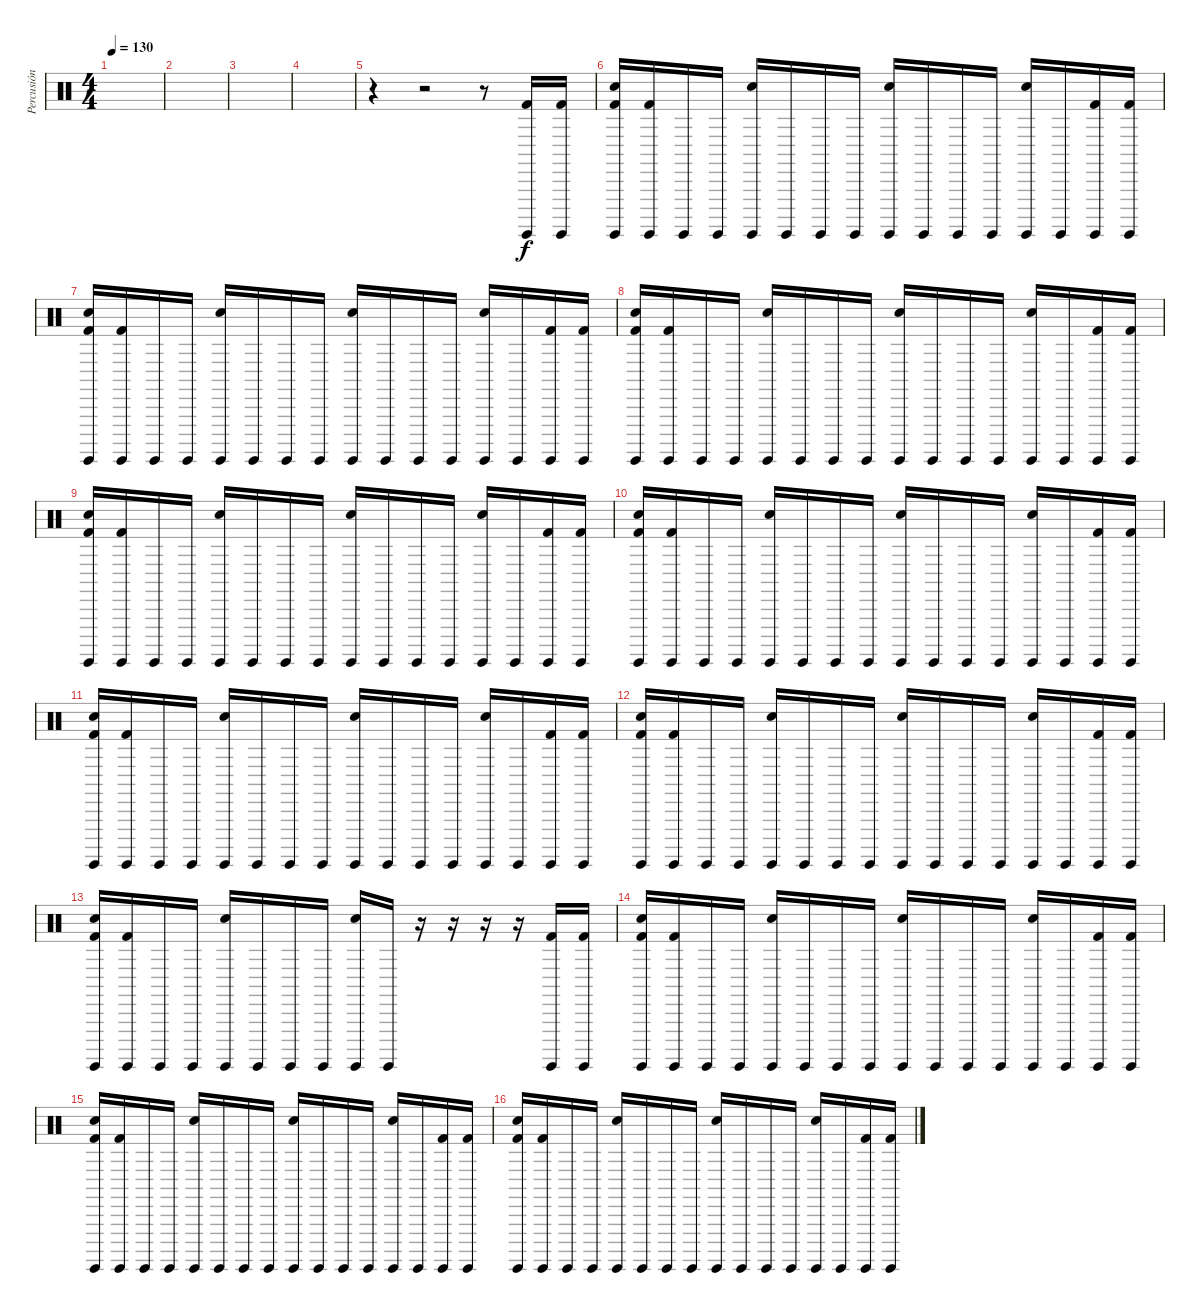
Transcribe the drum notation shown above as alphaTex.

\track ("Percusión" "Percusión") {instrument percussion}
\staff {score}
\articulation defaults
\ts (4 4)
\tempo 130
\clef neutral
\ks c
|
|
|
|
r.4 r.2 r.8 ("Kick (hit) 2" "Surdo (hit)").16 ("Kick (hit) 2" "Surdo (hit)").16 |
("Kick (hit) 2" "Electric Snare (hit)" "Surdo (hit)").16 ("Kick (hit) 2" "Surdo (hit)").16 "Surdo (hit)".16 "Surdo (hit)".16 ("Electric Snare (hit)" "Surdo (hit)").16 "Surdo (hit)".16 "Surdo (hit)".16 "Surdo (hit)".16 ("Electric Snare (hit)" "Surdo (hit)").16 "Surdo (hit)".16 "Surdo (hit)".16 "Surdo (hit)".16 ("Electric Snare (hit)" "Surdo (hit)").16 "Surdo (hit)".16 ("Kick (hit) 2" "Surdo (hit)").16 ("Kick (hit) 2" "Surdo (hit)").16 |
("Kick (hit) 2" "Electric Snare (hit)" "Surdo (hit)").16 ("Kick (hit) 2" "Surdo (hit)").16 "Surdo (hit)".16 "Surdo (hit)".16 ("Electric Snare (hit)" "Surdo (hit)").16 "Surdo (hit)".16 "Surdo (hit)".16 "Surdo (hit)".16 ("Electric Snare (hit)" "Surdo (hit)").16 "Surdo (hit)".16 "Surdo (hit)".16 "Surdo (hit)".16 ("Electric Snare (hit)" "Surdo (hit)").16 "Surdo (hit)".16 ("Kick (hit) 2" "Surdo (hit)").16 ("Kick (hit) 2" "Surdo (hit)").16 |
("Kick (hit) 2" "Electric Snare (hit)" "Surdo (hit)").16 ("Kick (hit) 2" "Surdo (hit)").16 "Surdo (hit)".16 "Surdo (hit)".16 ("Electric Snare (hit)" "Surdo (hit)").16 "Surdo (hit)".16 "Surdo (hit)".16 "Surdo (hit)".16 ("Electric Snare (hit)" "Surdo (hit)").16 "Surdo (hit)".16 "Surdo (hit)".16 "Surdo (hit)".16 ("Electric Snare (hit)" "Surdo (hit)").16 "Surdo (hit)".16 ("Kick (hit) 2" "Surdo (hit)").16 ("Kick (hit) 2" "Surdo (hit)").16 |
("Kick (hit) 2" "Electric Snare (hit)" "Surdo (hit)").16 ("Kick (hit) 2" "Surdo (hit)").16 "Surdo (hit)".16 "Surdo (hit)".16 ("Electric Snare (hit)" "Surdo (hit)").16 "Surdo (hit)".16 "Surdo (hit)".16 "Surdo (hit)".16 ("Electric Snare (hit)" "Surdo (hit)").16 "Surdo (hit)".16 "Surdo (hit)".16 "Surdo (hit)".16 ("Electric Snare (hit)" "Surdo (hit)").16 "Surdo (hit)".16 ("Kick (hit) 2" "Surdo (hit)").16 ("Kick (hit) 2" "Surdo (hit)").16 |
("Kick (hit) 2" "Electric Snare (hit)" "Surdo (hit)").16 ("Kick (hit) 2" "Surdo (hit)").16 "Surdo (hit)".16 "Surdo (hit)".16 ("Electric Snare (hit)" "Surdo (hit)").16 "Surdo (hit)".16 "Surdo (hit)".16 "Surdo (hit)".16 ("Electric Snare (hit)" "Surdo (hit)").16 "Surdo (hit)".16 "Surdo (hit)".16 "Surdo (hit)".16 ("Electric Snare (hit)" "Surdo (hit)").16 "Surdo (hit)".16 ("Kick (hit) 2" "Surdo (hit)").16 ("Kick (hit) 2" "Surdo (hit)").16 |
("Kick (hit) 2" "Electric Snare (hit)" "Surdo (hit)").16 ("Kick (hit) 2" "Surdo (hit)").16 "Surdo (hit)".16 "Surdo (hit)".16 ("Electric Snare (hit)" "Surdo (hit)").16 "Surdo (hit)".16 "Surdo (hit)".16 "Surdo (hit)".16 ("Electric Snare (hit)" "Surdo (hit)").16 "Surdo (hit)".16 "Surdo (hit)".16 "Surdo (hit)".16 ("Electric Snare (hit)" "Surdo (hit)").16 "Surdo (hit)".16 ("Kick (hit) 2" "Surdo (hit)").16 ("Kick (hit) 2" "Surdo (hit)").16 |
("Kick (hit) 2" "Electric Snare (hit)" "Surdo (hit)").16 ("Kick (hit) 2" "Surdo (hit)").16 "Surdo (hit)".16 "Surdo (hit)".16 ("Electric Snare (hit)" "Surdo (hit)").16 "Surdo (hit)".16 "Surdo (hit)".16 "Surdo (hit)".16 ("Electric Snare (hit)" "Surdo (hit)").16 "Surdo (hit)".16 "Surdo (hit)".16 "Surdo (hit)".16 ("Electric Snare (hit)" "Surdo (hit)").16 "Surdo (hit)".16 ("Kick (hit) 2" "Surdo (hit)").16 ("Kick (hit) 2" "Surdo (hit)").16 |
("Kick (hit) 2" "Electric Snare (hit)" "Surdo (hit)").16 ("Kick (hit) 2" "Surdo (hit)").16 "Surdo (hit)".16 "Surdo (hit)".16 ("Electric Snare (hit)" "Surdo (hit)").16 "Surdo (hit)".16 "Surdo (hit)".16 "Surdo (hit)".16 ("Electric Snare (hit)" "Surdo (hit)").16 "Surdo (hit)".16 r.16 r.16 r.16 r.16 ("Kick (hit) 2" "Surdo (hit)").16 ("Kick (hit) 2" "Surdo (hit)").16 |
("Kick (hit) 2" "Electric Snare (hit)" "Surdo (hit)").16 ("Kick (hit) 2" "Surdo (hit)").16 "Surdo (hit)".16 "Surdo (hit)".16 ("Electric Snare (hit)" "Surdo (hit)").16 "Surdo (hit)".16 "Surdo (hit)".16 "Surdo (hit)".16 ("Electric Snare (hit)" "Surdo (hit)").16 "Surdo (hit)".16 "Surdo (hit)".16 "Surdo (hit)".16 ("Electric Snare (hit)" "Surdo (hit)").16 "Surdo (hit)".16 ("Kick (hit) 2" "Surdo (hit)").16 ("Kick (hit) 2" "Surdo (hit)").16 |
("Kick (hit) 2" "Electric Snare (hit)" "Surdo (hit)").16 ("Kick (hit) 2" "Surdo (hit)").16 "Surdo (hit)".16 "Surdo (hit)".16 ("Electric Snare (hit)" "Surdo (hit)").16 "Surdo (hit)".16 "Surdo (hit)".16 "Surdo (hit)".16 ("Electric Snare (hit)" "Surdo (hit)").16 "Surdo (hit)".16 "Surdo (hit)".16 "Surdo (hit)".16 ("Electric Snare (hit)" "Surdo (hit)").16 "Surdo (hit)".16 ("Kick (hit) 2" "Surdo (hit)").16 ("Kick (hit) 2" "Surdo (hit)").16 |
("Kick (hit) 2" "Electric Snare (hit)" "Surdo (hit)").16 ("Kick (hit) 2" "Surdo (hit)").16 "Surdo (hit)".16 "Surdo (hit)".16 ("Electric Snare (hit)" "Surdo (hit)").16 "Surdo (hit)".16 "Surdo (hit)".16 "Surdo (hit)".16 ("Electric Snare (hit)" "Surdo (hit)").16 "Surdo (hit)".16 "Surdo (hit)".16 "Surdo (hit)".16 ("Electric Snare (hit)" "Surdo (hit)").16 "Surdo (hit)".16 ("Kick (hit) 2" "Surdo (hit)").16 ("Kick (hit) 2" "Surdo (hit)").16
